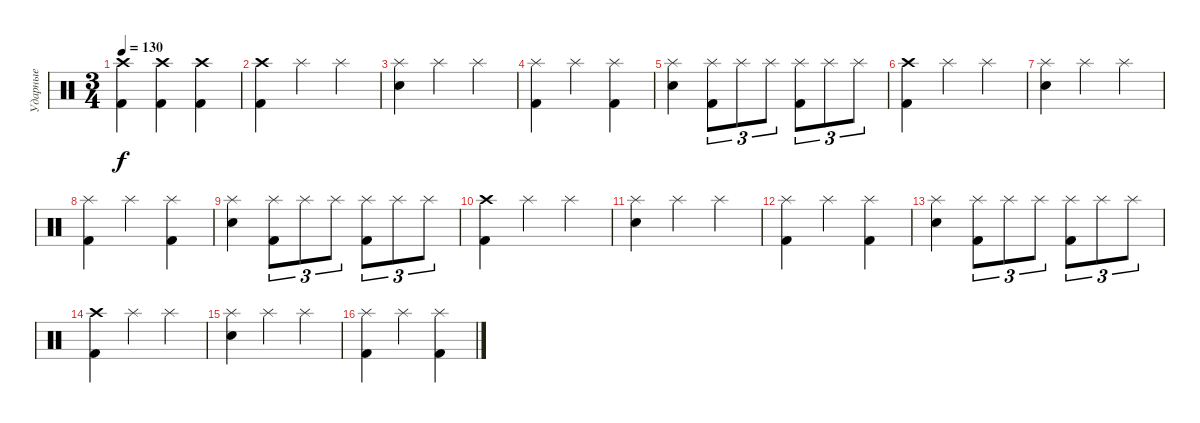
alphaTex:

\track ("Ударные" "Ударные") {instrument percussion}
\staff {score}
\articulation defaults
\ts (3 4)
\tempo 130
\clef neutral
\ks c
("Crash high (hit)" "Kick (hit) 2").4{dy f} ("Crash high (hit)" "Kick (hit) 2").4 ("Crash high (hit)" "Kick (hit) 2").4 |
("Crash high (hit)" "Kick (hit) 2").4 "Splash (hit)".4 "Splash (hit)".4 |
("Splash (hit)" "Electric Snare (hit)").4 "Splash (hit)".4 "Splash (hit)".4 |
("Splash (hit)" "Kick (hit) 2").4 "Splash (hit)".4 ("Splash (hit)" "Kick (hit) 2").4 |
("Splash (hit)" "Electric Snare (hit)").4 ("Splash (hit)" "Kick (hit) 2").8{tu (3 2)} "Splash (hit)".8{tu (3 2)} "Splash (hit)".8{tu (3 2)} ("Splash (hit)" "Kick (hit) 2").8{tu (3 2)} "Splash (hit)".8{tu (3 2)} "Splash (hit)".8{tu (3 2)} |
("Crash high (hit)" "Kick (hit) 2").4 "Splash (hit)".4 "Splash (hit)".4 |
("Splash (hit)" "Electric Snare (hit)").4 "Splash (hit)".4 "Splash (hit)".4 |
("Splash (hit)" "Kick (hit) 2").4 "Splash (hit)".4 ("Splash (hit)" "Kick (hit) 2").4 |
("Splash (hit)" "Electric Snare (hit)").4 ("Splash (hit)" "Kick (hit) 2").8{tu (3 2)} "Splash (hit)".8{tu (3 2)} "Splash (hit)".8{tu (3 2)} ("Splash (hit)" "Kick (hit) 2").8{tu (3 2)} "Splash (hit)".8{tu (3 2)} "Splash (hit)".8{tu (3 2)} |
("Crash high (hit)" "Kick (hit) 2").4 "Splash (hit)".4 "Splash (hit)".4 |
("Splash (hit)" "Electric Snare (hit)").4 "Splash (hit)".4 "Splash (hit)".4 |
("Splash (hit)" "Kick (hit) 2").4 "Splash (hit)".4 ("Splash (hit)" "Kick (hit) 2").4 |
("Splash (hit)" "Electric Snare (hit)").4 ("Splash (hit)" "Kick (hit) 2").8{tu (3 2)} "Splash (hit)".8{tu (3 2)} "Splash (hit)".8{tu (3 2)} ("Splash (hit)" "Kick (hit) 2").8{tu (3 2)} "Splash (hit)".8{tu (3 2)} "Splash (hit)".8{tu (3 2)} |
("Crash high (hit)" "Kick (hit) 2").4 "Splash (hit)".4 "Splash (hit)".4 |
("Splash (hit)" "Electric Snare (hit)").4 "Splash (hit)".4 "Splash (hit)".4 |
("Splash (hit)" "Kick (hit) 2").4 "Splash (hit)".4 ("Splash (hit)" "Kick (hit) 2").4
